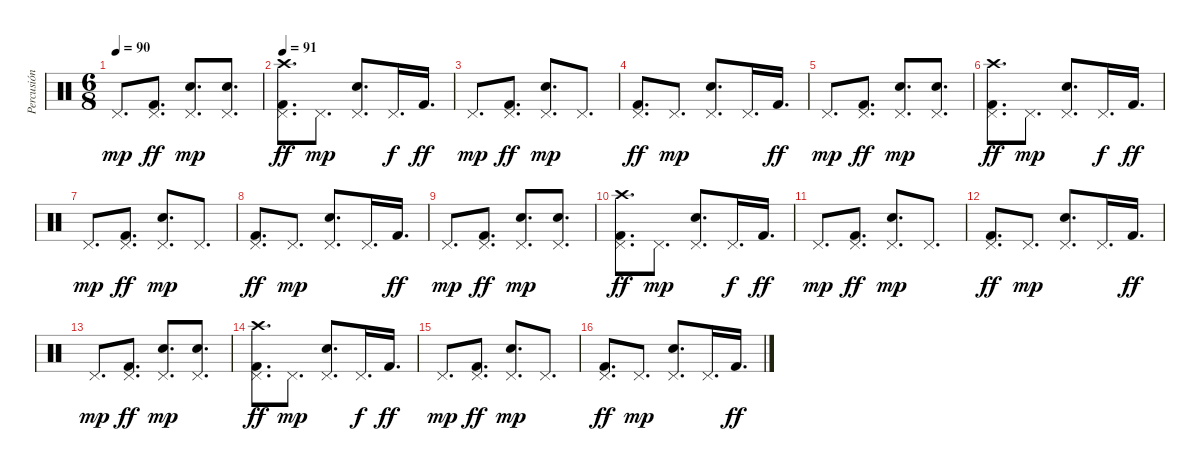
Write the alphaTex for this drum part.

\track ("Percusión" "Percusión") {instrument percussion}
\staff {score}
\articulation defaults
\ts (6 8)
\tempo 90
\clef neutral
\ks c "Pedal Hi-Hat (hit)".8{d dy mp}
("Pedal Hi-Hat (hit)" "Kick (hit) 2").8{d dy ff} ("Pedal Hi-Hat (hit)" "Electric Snare (hit)").8{d dy mp} ("Pedal Hi-Hat (hit)" "Electric Snare (hit)").8{d} |
\tempo 91
("Crash high (hit)" "Pedal Hi-Hat (hit)" "Kick (hit) 2").8{d dy ff} "Pedal Hi-Hat (hit)".8{d dy mp} ("Pedal Hi-Hat (hit)" "Electric Snare (hit)").8{d} "Pedal Hi-Hat (hit)".16{d dy f} "Kick (hit) 2".16{d dy ff} |
"Pedal Hi-Hat (hit)".8{d dy mp} ("Pedal Hi-Hat (hit)" "Kick (hit) 2").8{d dy ff} ("Pedal Hi-Hat (hit)" "Electric Snare (hit)").8{d dy mp} "Pedal Hi-Hat (hit)".8{d} |
("Pedal Hi-Hat (hit)" "Kick (hit) 2").8{d dy ff} "Pedal Hi-Hat (hit)".8{d dy mp} ("Pedal Hi-Hat (hit)" "Electric Snare (hit)").8{d} "Pedal Hi-Hat (hit)".16{d} "Kick (hit) 2".16{d dy ff} |
"Pedal Hi-Hat (hit)".8{d dy mp} ("Pedal Hi-Hat (hit)" "Kick (hit) 2").8{d dy ff} ("Pedal Hi-Hat (hit)" "Electric Snare (hit)").8{d dy mp} ("Pedal Hi-Hat (hit)" "Electric Snare (hit)").8{d} |
("Crash high (hit)" "Pedal Hi-Hat (hit)" "Kick (hit) 2").8{d dy ff} "Pedal Hi-Hat (hit)".8{d dy mp} ("Pedal Hi-Hat (hit)" "Electric Snare (hit)").8{d} "Pedal Hi-Hat (hit)".16{d dy f} "Kick (hit) 2".16{d dy ff} |
"Pedal Hi-Hat (hit)".8{d dy mp} ("Pedal Hi-Hat (hit)" "Kick (hit) 2").8{d dy ff} ("Pedal Hi-Hat (hit)" "Electric Snare (hit)").8{d dy mp} "Pedal Hi-Hat (hit)".8{d} |
("Pedal Hi-Hat (hit)" "Kick (hit) 2").8{d dy ff} "Pedal Hi-Hat (hit)".8{d dy mp} ("Pedal Hi-Hat (hit)" "Electric Snare (hit)").8{d} "Pedal Hi-Hat (hit)".16{d} "Kick (hit) 2".16{d dy ff} |
"Pedal Hi-Hat (hit)".8{d dy mp} ("Pedal Hi-Hat (hit)" "Kick (hit) 2").8{d dy ff} ("Pedal Hi-Hat (hit)" "Electric Snare (hit)").8{d dy mp} ("Pedal Hi-Hat (hit)" "Electric Snare (hit)").8{d} |
("Crash high (hit)" "Pedal Hi-Hat (hit)" "Kick (hit) 2").8{d dy ff} "Pedal Hi-Hat (hit)".8{d dy mp} ("Pedal Hi-Hat (hit)" "Electric Snare (hit)").8{d} "Pedal Hi-Hat (hit)".16{d dy f} "Kick (hit) 2".16{d dy ff} |
"Pedal Hi-Hat (hit)".8{d dy mp} ("Pedal Hi-Hat (hit)" "Kick (hit) 2").8{d dy ff} ("Pedal Hi-Hat (hit)" "Electric Snare (hit)").8{d dy mp} "Pedal Hi-Hat (hit)".8{d} |
("Pedal Hi-Hat (hit)" "Kick (hit) 2").8{d dy ff} "Pedal Hi-Hat (hit)".8{d dy mp} ("Pedal Hi-Hat (hit)" "Electric Snare (hit)").8{d} "Pedal Hi-Hat (hit)".16{d} "Kick (hit) 2".16{d dy ff} |
"Pedal Hi-Hat (hit)".8{d dy mp} ("Pedal Hi-Hat (hit)" "Kick (hit) 2").8{d dy ff} ("Pedal Hi-Hat (hit)" "Electric Snare (hit)").8{d dy mp} ("Pedal Hi-Hat (hit)" "Electric Snare (hit)").8{d} |
("Crash high (hit)" "Pedal Hi-Hat (hit)" "Kick (hit) 2").8{d dy ff} "Pedal Hi-Hat (hit)".8{d dy mp} ("Pedal Hi-Hat (hit)" "Electric Snare (hit)").8{d} "Pedal Hi-Hat (hit)".16{d dy f} "Kick (hit) 2".16{d dy ff} |
"Pedal Hi-Hat (hit)".8{d dy mp} ("Pedal Hi-Hat (hit)" "Kick (hit) 2").8{d dy ff} ("Pedal Hi-Hat (hit)" "Electric Snare (hit)").8{d dy mp} "Pedal Hi-Hat (hit)".8{d} |
("Pedal Hi-Hat (hit)" "Kick (hit) 2").8{d dy ff} "Pedal Hi-Hat (hit)".8{d dy mp} ("Pedal Hi-Hat (hit)" "Electric Snare (hit)").8{d} "Pedal Hi-Hat (hit)".16{d} "Kick (hit) 2".16{d dy ff}
